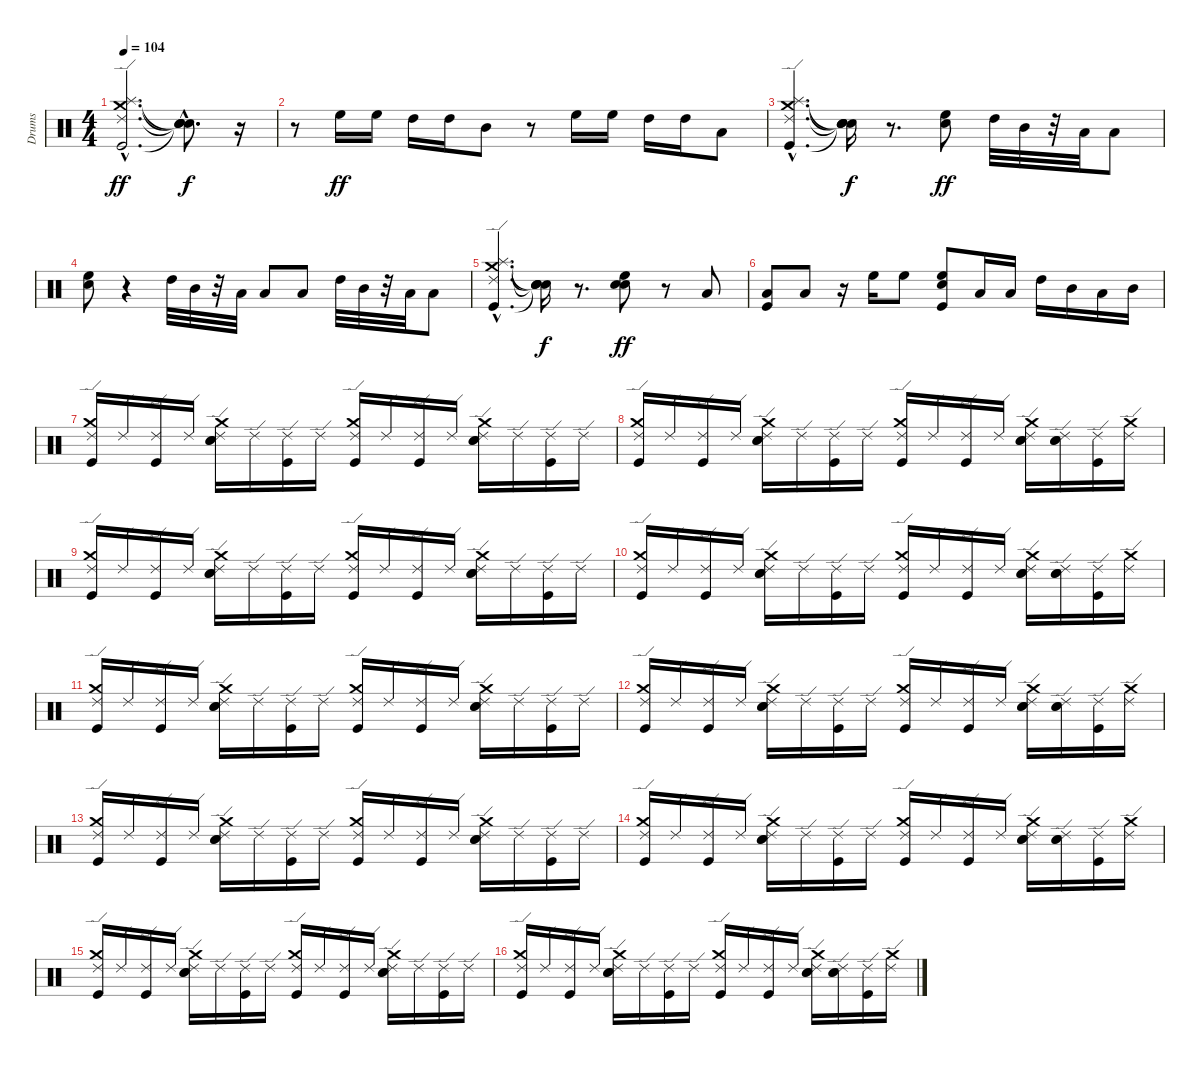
\track ("Drums" "Drums") {instrument percussion}
\staff {score}
\articulation defaults
\ts (4 4)
\tempo 104
\clef neutral
\ks c
("Kick (hit)"{hac} "Splash (hit)"{hac} "Crash medium (hit)"{hac} "Ride (edge) 2"{hac}).2{d dy ff} ("Snare (hit)"{hac t} "Snare (hit)"{hac t} "Snare (hit)"{hac t} "Snare (hit)"{hac t}).8{d dy f} r.16 |
r.8 "High Floor Tom (hit)".16{dy ff} "High Floor Tom (hit)".16 "High Tom (hit)".16 "High Tom (hit)".16 "Mid Tom (hit)".8 r.8 "High Floor Tom (hit)".16 "High Floor Tom (hit)".16 "High Tom (hit)".16 "High Tom (hit)".16 "Low Tom (hit)".8 |
("Kick (hit)"{hac} "Splash (hit)"{hac} "Crash medium (hit)"{hac} "Ride (edge) 2"{hac}).4{d} ("Snare (hit)"{t} "Snare (hit)"{t} "Snare (hit)"{t} "Snare (hit)"{t}).16{dy f} r.8{d} ("Snare (hit) 2" "High Floor Tom (hit)").8{dy ff} "High Tom (hit)".32 "Mid Tom (hit)".32 r.32 "Low Tom (hit)".32 "Low Tom (hit)".8 |
("Snare (hit) 2" "High Floor Tom (hit)").8 r.4 "High Tom (hit)".32 "Mid Tom (hit)".32 r.32 "Low Tom (hit)".32 "Low Tom (hit)".8 "Low Tom (hit)".8 "High Tom (hit)".32 "Mid Tom (hit)".32 r.32 "Low Tom (hit)".32 "Low Tom (hit)".8 |
("Kick (hit)"{hac} "Splash (hit)"{hac} "Crash medium (hit)"{hac} "Ride (edge) 2"{hac}).4{d} ("Snare (hit)"{t} "Snare (hit)"{t} "Snare (hit)"{t} "Snare (hit)"{t}).16{dy f} r.8{d} ("Snare (hit) 2" "Electric Snare (hit)" "High Floor Tom (hit)").8{dy ff} r.8 "Low Tom (hit)".8 |
("Kick (hit)" "Low Tom (hit)").8 "Low Tom (hit)".8 r.16 "High Floor Tom (hit)".16 "High Floor Tom (hit)".8 ("Kick (hit)" "Electric Snare (hit)" "High Floor Tom (hit)").8 "Low Tom (hit)".16 "Low Tom (hit)".16 "High Tom (hit)".16 "Mid Tom (hit)".16 "Low Tom (hit)".16 "Mid Tom (hit)".16 |
("Kick (hit)" "Crash medium (hit)" "Ride (edge) 2").16 "Ride (edge) 2".16 ("Kick (hit)" "Ride (edge) 2").16 "Ride (edge) 2".16 ("Snare (hit) 2" "Electric Snare (hit)" "Crash medium (hit)" "Ride (edge) 2").16 "Ride (edge) 2".16 ("Kick (hit)" "Ride (edge) 2").16 "Ride (edge) 2".16 ("Kick (hit)" "Crash medium (hit)" "Ride (edge) 2").16 "Ride (edge) 2".16 ("Kick (hit)" "Ride (edge) 2").16 "Ride (edge) 2".16 ("Snare (hit) 2" "Electric Snare (hit)" "Crash medium (hit)" "Ride (edge) 2").16 "Ride (edge) 2".16 ("Kick (hit)" "Ride (edge) 2").16 "Ride (edge) 2".16 |
("Kick (hit)" "Crash medium (hit)" "Ride (edge) 2").16 "Ride (edge) 2".16 ("Kick (hit)" "Ride (edge) 2").16 "Ride (edge) 2".16 ("Snare (hit) 2" "Electric Snare (hit)" "Crash medium (hit)" "Ride (edge) 2").16 "Ride (edge) 2".16 ("Kick (hit)" "Ride (edge) 2").16 "Ride (edge) 2".16 ("Kick (hit)" "Crash medium (hit)" "Ride (edge) 2").16 "Ride (edge) 2".16 ("Kick (hit)" "Ride (edge) 2").16 "Ride (edge) 2".16 ("Snare (hit) 2" "Electric Snare (hit)" "Crash medium (hit)" "Ride (edge) 2").16 ("Snare (hit) 2" "Electric Snare (hit)" "Ride (edge) 2").16 ("Kick (hit)" "Ride (edge) 2").16 ("Crash medium (hit)" "Ride (edge) 2").16 |
("Kick (hit)" "Crash medium (hit)" "Ride (edge) 2").16 "Ride (edge) 2".16 ("Kick (hit)" "Ride (edge) 2").16 "Ride (edge) 2".16 ("Snare (hit) 2" "Electric Snare (hit)" "Crash medium (hit)" "Ride (edge) 2").16 "Ride (edge) 2".16 ("Kick (hit)" "Ride (edge) 2").16 "Ride (edge) 2".16 ("Kick (hit)" "Crash medium (hit)" "Ride (edge) 2").16 "Ride (edge) 2".16 ("Kick (hit)" "Ride (edge) 2").16 "Ride (edge) 2".16 ("Snare (hit) 2" "Electric Snare (hit)" "Crash medium (hit)" "Ride (edge) 2").16 "Ride (edge) 2".16 ("Kick (hit)" "Ride (edge) 2").16 "Ride (edge) 2".16 |
("Kick (hit)" "Crash medium (hit)" "Ride (edge) 2").16 "Ride (edge) 2".16 ("Kick (hit)" "Ride (edge) 2").16 "Ride (edge) 2".16 ("Snare (hit) 2" "Electric Snare (hit)" "Crash medium (hit)" "Ride (edge) 2").16 "Ride (edge) 2".16 ("Kick (hit)" "Ride (edge) 2").16 "Ride (edge) 2".16 ("Kick (hit)" "Crash medium (hit)" "Ride (edge) 2").16 "Ride (edge) 2".16 ("Kick (hit)" "Ride (edge) 2").16 "Ride (edge) 2".16 ("Snare (hit) 2" "Electric Snare (hit)" "Crash medium (hit)" "Ride (edge) 2").16 ("Snare (hit) 2" "Electric Snare (hit)" "Ride (edge) 2").16 ("Kick (hit)" "Ride (edge) 2").16 ("Crash medium (hit)" "Ride (edge) 2").16 |
("Kick (hit)" "Crash medium (hit)" "Ride (edge) 2").16 "Ride (edge) 2".16 ("Kick (hit)" "Ride (edge) 2").16 "Ride (edge) 2".16 ("Snare (hit) 2" "Electric Snare (hit)" "Crash medium (hit)" "Ride (edge) 2").16 "Ride (edge) 2".16 ("Kick (hit)" "Ride (edge) 2").16 "Ride (edge) 2".16 ("Kick (hit)" "Crash medium (hit)" "Ride (edge) 2").16 "Ride (edge) 2".16 ("Kick (hit)" "Ride (edge) 2").16 "Ride (edge) 2".16 ("Snare (hit) 2" "Electric Snare (hit)" "Crash medium (hit)" "Ride (edge) 2").16 "Ride (edge) 2".16 ("Kick (hit)" "Ride (edge) 2").16 "Ride (edge) 2".16 |
("Kick (hit)" "Crash medium (hit)" "Ride (edge) 2").16 "Ride (edge) 2".16 ("Kick (hit)" "Ride (edge) 2").16 "Ride (edge) 2".16 ("Snare (hit) 2" "Electric Snare (hit)" "Crash medium (hit)" "Ride (edge) 2").16 "Ride (edge) 2".16 ("Kick (hit)" "Ride (edge) 2").16 "Ride (edge) 2".16 ("Kick (hit)" "Crash medium (hit)" "Ride (edge) 2").16 "Ride (edge) 2".16 ("Kick (hit)" "Ride (edge) 2").16 "Ride (edge) 2".16 ("Snare (hit) 2" "Electric Snare (hit)" "Crash medium (hit)" "Ride (edge) 2").16 ("Snare (hit) 2" "Electric Snare (hit)" "Ride (edge) 2").16 ("Kick (hit)" "Ride (edge) 2").16 ("Crash medium (hit)" "Ride (edge) 2").16 |
("Kick (hit)" "Crash medium (hit)" "Ride (edge) 2").16 "Ride (edge) 2".16 ("Kick (hit)" "Ride (edge) 2").16 "Ride (edge) 2".16 ("Snare (hit) 2" "Electric Snare (hit)" "Crash medium (hit)" "Ride (edge) 2").16 "Ride (edge) 2".16 ("Kick (hit)" "Ride (edge) 2").16 "Ride (edge) 2".16 ("Kick (hit)" "Crash medium (hit)" "Ride (edge) 2").16 "Ride (edge) 2".16 ("Kick (hit)" "Ride (edge) 2").16 "Ride (edge) 2".16 ("Snare (hit) 2" "Electric Snare (hit)" "Crash medium (hit)" "Ride (edge) 2").16 "Ride (edge) 2".16 ("Kick (hit)" "Ride (edge) 2").16 "Ride (edge) 2".16 |
("Kick (hit)" "Crash medium (hit)" "Ride (edge) 2").16 "Ride (edge) 2".16 ("Kick (hit)" "Ride (edge) 2").16 "Ride (edge) 2".16 ("Snare (hit) 2" "Electric Snare (hit)" "Crash medium (hit)" "Ride (edge) 2").16 "Ride (edge) 2".16 ("Kick (hit)" "Ride (edge) 2").16 "Ride (edge) 2".16 ("Kick (hit)" "Crash medium (hit)" "Ride (edge) 2").16 "Ride (edge) 2".16 ("Kick (hit)" "Ride (edge) 2").16 "Ride (edge) 2".16 ("Snare (hit) 2" "Electric Snare (hit)" "Crash medium (hit)" "Ride (edge) 2").16 ("Snare (hit) 2" "Electric Snare (hit)" "Ride (edge) 2").16 ("Kick (hit)" "Ride (edge) 2").16 ("Crash medium (hit)" "Ride (edge) 2").16 |
("Kick (hit)" "Crash medium (hit)" "Ride (edge) 2").16 "Ride (edge) 2".16 ("Kick (hit)" "Ride (edge) 2").16 "Ride (edge) 2".16 ("Snare (hit) 2" "Electric Snare (hit)" "Crash medium (hit)" "Ride (edge) 2").16 "Ride (edge) 2".16 ("Kick (hit)" "Ride (edge) 2").16 "Ride (edge) 2".16 ("Kick (hit)" "Crash medium (hit)" "Ride (edge) 2").16 "Ride (edge) 2".16 ("Kick (hit)" "Ride (edge) 2").16 "Ride (edge) 2".16 ("Snare (hit) 2" "Electric Snare (hit)" "Crash medium (hit)" "Ride (edge) 2").16 "Ride (edge) 2".16 ("Kick (hit)" "Ride (edge) 2").16 "Ride (edge) 2".16 |
("Kick (hit)" "Crash medium (hit)" "Ride (edge) 2").16 "Ride (edge) 2".16 ("Kick (hit)" "Ride (edge) 2").16 "Ride (edge) 2".16 ("Snare (hit) 2" "Electric Snare (hit)" "Crash medium (hit)" "Ride (edge) 2").16 "Ride (edge) 2".16 ("Kick (hit)" "Ride (edge) 2").16 "Ride (edge) 2".16 ("Kick (hit)" "Crash medium (hit)" "Ride (edge) 2").16 "Ride (edge) 2".16 ("Kick (hit)" "Ride (edge) 2").16 "Ride (edge) 2".16 ("Snare (hit) 2" "Electric Snare (hit)" "Crash medium (hit)" "Ride (edge) 2").16 ("Snare (hit) 2" "Electric Snare (hit)" "Ride (edge) 2").16 ("Kick (hit)" "Ride (edge) 2").16 ("Crash medium (hit)" "Ride (edge) 2").16
